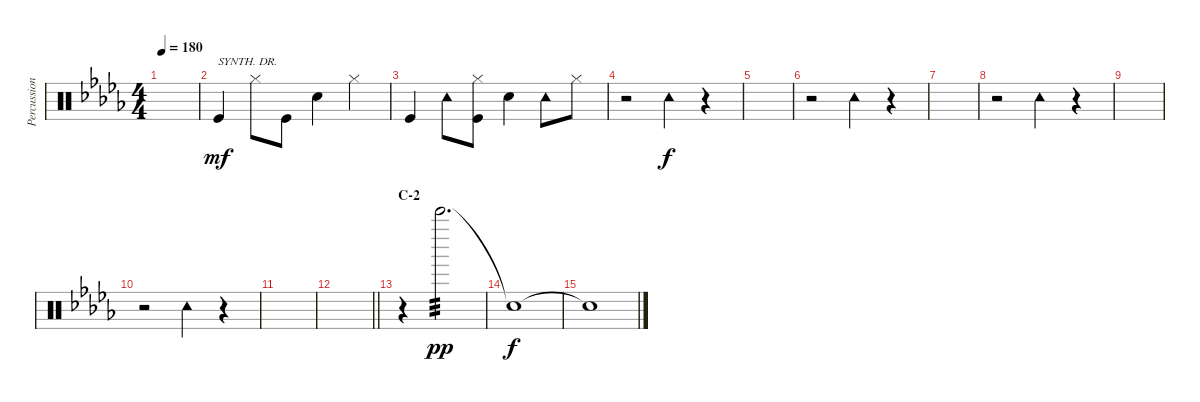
\track ("Percussion I (Tainaka Ritsu)" "Percussion") {instrument percussion}
\staff {score}
\articulation defaults
\ts (4 4)
\tempo 180
\clef neutral
\ks db
|
"Kick (hit)".4{txt "SYNTH. DR." dy mf} "Hi-Hat (closed)".8 "Kick (hit)".8 "Snare (hit) 2".4 "Hi-Hat (closed)".4 |
"Kick (hit)".4 "Tambourine (hit)".8 ("Hi-Hat (closed)" "Kick (hit)").8 "Snare (hit) 2".4 "Tambourine (hit)".8 "Hi-Hat (closed)".8 |
r.2 "Tambourine (hit)".4{dy f} r.4 |
|
r.2 "Tambourine (hit)".4 r.4 |
|
r.2 "Tambourine (hit)".4 r.4 |
|
r.2 "Tambourine (hit)".4 r.4 |
|
\barLineRight lightlight
|
\section ("" "C-2")
r.4 "Bell Tree (hit)".2{d tp 3 dy pp} |
"Snare (hit)"{t}.1{dy f} |
"Snare (hit)"{t}.1
